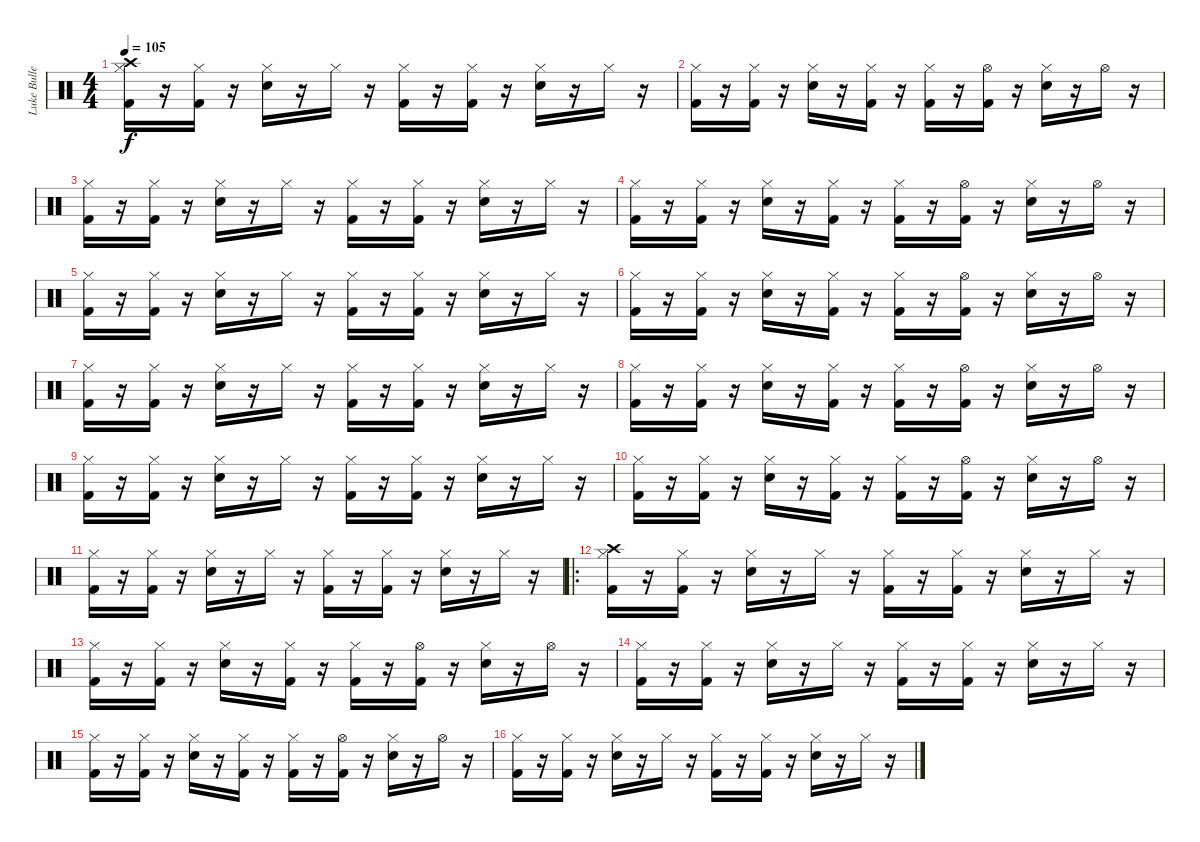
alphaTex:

\track ("Luke Bullen" "Luke Bulle") {instrument percussion}
\staff {score}
\articulation defaults
\ts (4 4)
\tempo 105
\clef neutral
\ks c
("Crash high (hit)" "Hi-Hat (closed)" "Kick (hit) 2").16{dy f} r.16 ("Hi-Hat (closed)" "Kick (hit) 2").16 r.16 ("Hi-Hat (closed)" "Electric Snare (hit)").16 r.16 "Hi-Hat (closed)".16 r.16 ("Hi-Hat (closed)" "Kick (hit) 2").16 r.16 ("Hi-Hat (closed)" "Kick (hit) 2").16 r.16 ("Hi-Hat (closed)" "Electric Snare (hit)").16 r.16 "Hi-Hat (closed)".16 r.16 |
("Hi-Hat (closed)" "Kick (hit) 2").16 r.16 ("Hi-Hat (closed)" "Kick (hit) 2").16 r.16 ("Hi-Hat (closed)" "Electric Snare (hit)").16 r.16 ("Hi-Hat (closed)" "Kick (hit) 2").16 r.16 ("Hi-Hat (closed)" "Kick (hit) 2").16 r.16 ("Hi-Hat (open)" "Kick (hit) 2").16 r.16 ("Hi-Hat (closed)" "Electric Snare (hit)").16 r.16 "Hi-Hat (open)".16 r.16 |
("Hi-Hat (closed)" "Kick (hit) 2").16 r.16 ("Hi-Hat (closed)" "Kick (hit) 2").16 r.16 ("Hi-Hat (closed)" "Electric Snare (hit)").16 r.16 "Hi-Hat (closed)".16 r.16 ("Hi-Hat (closed)" "Kick (hit) 2").16 r.16 ("Hi-Hat (closed)" "Kick (hit) 2").16 r.16 ("Hi-Hat (closed)" "Electric Snare (hit)").16 r.16 "Hi-Hat (closed)".16 r.16 |
("Hi-Hat (closed)" "Kick (hit) 2").16 r.16 ("Hi-Hat (closed)" "Kick (hit) 2").16 r.16 ("Hi-Hat (closed)" "Electric Snare (hit)").16 r.16 ("Hi-Hat (closed)" "Kick (hit) 2").16 r.16 ("Hi-Hat (closed)" "Kick (hit) 2").16 r.16 ("Hi-Hat (open)" "Kick (hit) 2").16 r.16 ("Hi-Hat (closed)" "Electric Snare (hit)").16 r.16 "Hi-Hat (open)".16 r.16 |
("Hi-Hat (closed)" "Kick (hit) 2").16 r.16 ("Hi-Hat (closed)" "Kick (hit) 2").16 r.16 ("Hi-Hat (closed)" "Electric Snare (hit)").16 r.16 "Hi-Hat (closed)".16 r.16 ("Hi-Hat (closed)" "Kick (hit) 2").16 r.16 ("Hi-Hat (closed)" "Kick (hit) 2").16 r.16 ("Hi-Hat (closed)" "Electric Snare (hit)").16 r.16 "Hi-Hat (closed)".16 r.16 |
("Hi-Hat (closed)" "Kick (hit) 2").16 r.16 ("Hi-Hat (closed)" "Kick (hit) 2").16 r.16 ("Hi-Hat (closed)" "Electric Snare (hit)").16 r.16 ("Hi-Hat (closed)" "Kick (hit) 2").16 r.16 ("Hi-Hat (closed)" "Kick (hit) 2").16 r.16 ("Hi-Hat (open)" "Kick (hit) 2").16 r.16 ("Hi-Hat (closed)" "Electric Snare (hit)").16 r.16 "Hi-Hat (open)".16 r.16 |
("Hi-Hat (closed)" "Kick (hit) 2").16 r.16 ("Hi-Hat (closed)" "Kick (hit) 2").16 r.16 ("Hi-Hat (closed)" "Electric Snare (hit)").16 r.16 "Hi-Hat (closed)".16 r.16 ("Hi-Hat (closed)" "Kick (hit) 2").16 r.16 ("Hi-Hat (closed)" "Kick (hit) 2").16 r.16 ("Hi-Hat (closed)" "Electric Snare (hit)").16 r.16 "Hi-Hat (closed)".16 r.16 |
("Hi-Hat (closed)" "Kick (hit) 2").16 r.16 ("Hi-Hat (closed)" "Kick (hit) 2").16 r.16 ("Hi-Hat (closed)" "Electric Snare (hit)").16 r.16 ("Hi-Hat (closed)" "Kick (hit) 2").16 r.16 ("Hi-Hat (closed)" "Kick (hit) 2").16 r.16 ("Hi-Hat (open)" "Kick (hit) 2").16 r.16 ("Hi-Hat (closed)" "Electric Snare (hit)").16 r.16 "Hi-Hat (open)".16 r.16 |
("Hi-Hat (closed)" "Kick (hit) 2").16 r.16 ("Hi-Hat (closed)" "Kick (hit) 2").16 r.16 ("Hi-Hat (closed)" "Electric Snare (hit)").16 r.16 "Hi-Hat (closed)".16 r.16 ("Hi-Hat (closed)" "Kick (hit) 2").16 r.16 ("Hi-Hat (closed)" "Kick (hit) 2").16 r.16 ("Hi-Hat (closed)" "Electric Snare (hit)").16 r.16 "Hi-Hat (closed)".16 r.16 |
("Hi-Hat (closed)" "Kick (hit) 2").16 r.16 ("Hi-Hat (closed)" "Kick (hit) 2").16 r.16 ("Hi-Hat (closed)" "Electric Snare (hit)").16 r.16 ("Hi-Hat (closed)" "Kick (hit) 2").16 r.16 ("Hi-Hat (closed)" "Kick (hit) 2").16 r.16 ("Hi-Hat (open)" "Kick (hit) 2").16 r.16 ("Hi-Hat (closed)" "Electric Snare (hit)").16 r.16 "Hi-Hat (open)".16 r.16 |
("Hi-Hat (closed)" "Kick (hit) 2").16 r.16 ("Hi-Hat (closed)" "Kick (hit) 2").16 r.16 ("Hi-Hat (closed)" "Electric Snare (hit)").16 r.16 "Hi-Hat (closed)".16 r.16 ("Hi-Hat (closed)" "Kick (hit) 2").16 r.16 ("Hi-Hat (closed)" "Kick (hit) 2").16 r.16 ("Hi-Hat (closed)" "Electric Snare (hit)").16 r.16 "Hi-Hat (closed)".16 r.16 |
\ro
("Hi-Hat (closed)" "Crash high (hit)" "Kick (hit) 2").16 r.16 ("Hi-Hat (closed)" "Kick (hit) 2").16 r.16 ("Hi-Hat (closed)" "Electric Snare (hit)").16 r.16 "Hi-Hat (closed)".16 r.16 ("Hi-Hat (closed)" "Kick (hit) 2").16 r.16 ("Hi-Hat (closed)" "Kick (hit) 2").16 r.16 ("Hi-Hat (closed)" "Electric Snare (hit)").16 r.16 "Hi-Hat (closed)".16 r.16 |
("Hi-Hat (closed)" "Kick (hit) 2").16 r.16 ("Hi-Hat (closed)" "Kick (hit) 2").16 r.16 ("Hi-Hat (closed)" "Electric Snare (hit)").16 r.16 ("Hi-Hat (closed)" "Kick (hit) 2").16 r.16 ("Hi-Hat (closed)" "Kick (hit) 2").16 r.16 ("Hi-Hat (open)" "Kick (hit) 2").16 r.16 ("Hi-Hat (closed)" "Electric Snare (hit)").16 r.16 "Hi-Hat (open)".16 r.16 |
("Hi-Hat (closed)" "Kick (hit) 2").16 r.16 ("Hi-Hat (closed)" "Kick (hit) 2").16 r.16 ("Hi-Hat (closed)" "Electric Snare (hit)").16 r.16 "Hi-Hat (closed)".16 r.16 ("Hi-Hat (closed)" "Kick (hit) 2").16 r.16 ("Hi-Hat (closed)" "Kick (hit) 2").16 r.16 ("Hi-Hat (closed)" "Electric Snare (hit)").16 r.16 "Hi-Hat (closed)".16 r.16 |
("Hi-Hat (closed)" "Kick (hit) 2").16 r.16 ("Hi-Hat (closed)" "Kick (hit) 2").16 r.16 ("Hi-Hat (closed)" "Electric Snare (hit)").16 r.16 ("Hi-Hat (closed)" "Kick (hit) 2").16 r.16 ("Hi-Hat (closed)" "Kick (hit) 2").16 r.16 ("Hi-Hat (open)" "Kick (hit) 2").16 r.16 ("Hi-Hat (closed)" "Electric Snare (hit)").16 r.16 "Hi-Hat (open)".16 r.16 |
("Hi-Hat (closed)" "Kick (hit) 2").16 r.16 ("Hi-Hat (closed)" "Kick (hit) 2").16 r.16 ("Hi-Hat (closed)" "Electric Snare (hit)").16 r.16 "Hi-Hat (closed)".16 r.16 ("Hi-Hat (closed)" "Kick (hit) 2").16 r.16 ("Hi-Hat (closed)" "Kick (hit) 2").16 r.16 ("Hi-Hat (closed)" "Electric Snare (hit)").16 r.16 "Hi-Hat (closed)".16 r.16
